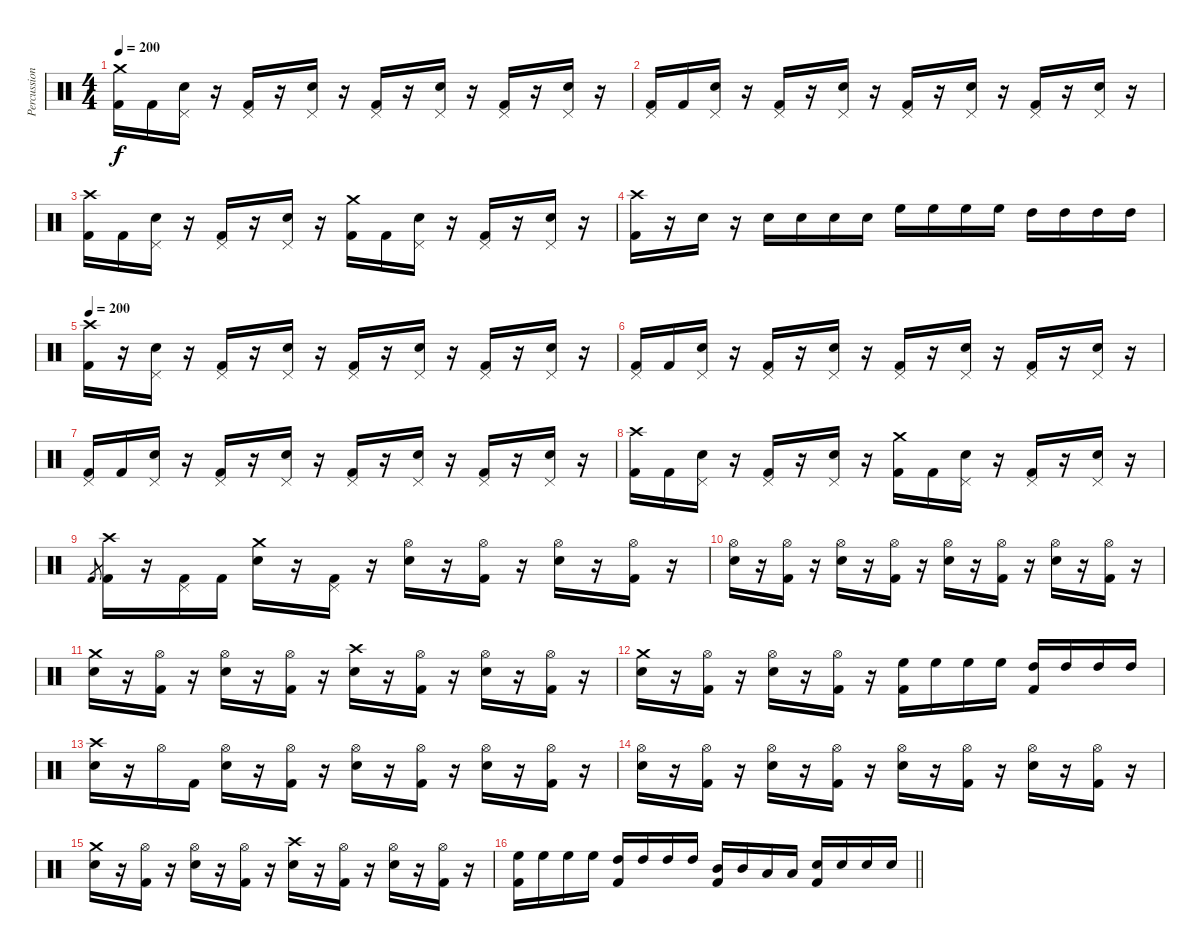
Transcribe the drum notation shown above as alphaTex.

\track ("Percussion" "Percussion") {instrument percussion}
\staff {score}
\articulation defaults
\ts (4 4)
\tempo 200
\clef neutral
\ks c
("Crash medium (hit)" "Kick (hit) 2").16{dy f} "Kick (hit) 2".16 ("Pedal Hi-Hat (hit)" "Snare (hit) 2").16 r.16 ("Pedal Hi-Hat (hit)" "Kick (hit) 2").16 r.16 ("Pedal Hi-Hat (hit)" "Snare (hit) 2").16 r.16 ("Pedal Hi-Hat (hit)" "Kick (hit) 2").16 r.16 ("Pedal Hi-Hat (hit)" "Snare (hit) 2").16 r.16 ("Pedal Hi-Hat (hit)" "Kick (hit) 2").16 r.16 ("Pedal Hi-Hat (hit)" "Snare (hit) 2").16 r.16 |
("Pedal Hi-Hat (hit)" "Kick (hit) 2").16 "Kick (hit) 2".16 ("Pedal Hi-Hat (hit)" "Snare (hit) 2").16 r.16 ("Pedal Hi-Hat (hit)" "Kick (hit) 2").16 r.16 ("Pedal Hi-Hat (hit)" "Snare (hit) 2").16 r.16 ("Pedal Hi-Hat (hit)" "Kick (hit) 2").16 r.16 ("Pedal Hi-Hat (hit)" "Snare (hit) 2").16 r.16 ("Pedal Hi-Hat (hit)" "Kick (hit) 2").16 r.16 ("Pedal Hi-Hat (hit)" "Snare (hit) 2").16 r.16 |
("Crash high (hit)" "Kick (hit) 2").16 "Kick (hit) 2".16 ("Pedal Hi-Hat (hit)" "Snare (hit) 2").16 r.16 ("Pedal Hi-Hat (hit)" "Kick (hit) 2").16 r.16 ("Pedal Hi-Hat (hit)" "Snare (hit) 2").16 r.16 ("Crash medium (hit)" "Kick (hit) 2").16 "Kick (hit) 2".16 ("Pedal Hi-Hat (hit)" "Snare (hit) 2").16 r.16 ("Pedal Hi-Hat (hit)" "Kick (hit) 2").16 r.16 ("Pedal Hi-Hat (hit)" "Snare (hit) 2").16 r.16 |
("Crash high (hit)" "Kick (hit) 2").16 r.16 "Snare (hit) 2".16 r.16 "Snare (hit) 2".16 "Snare (hit) 2".16 "Snare (hit) 2".16 "Snare (hit) 2".16 "High Floor Tom (hit)".16 "High Floor Tom (hit)".16 "High Floor Tom (hit)".16 "High Floor Tom (hit)".16 "High Tom (hit)".16 "High Tom (hit)".16 "High Tom (hit)".16 "High Tom (hit)".16 |
\tempo 200
("Crash high (hit)" "Kick (hit) 2").16 r.16 ("Pedal Hi-Hat (hit)" "Snare (hit) 2").16 r.16 ("Pedal Hi-Hat (hit)" "Kick (hit) 2").16 r.16 ("Pedal Hi-Hat (hit)" "Snare (hit) 2").16 r.16 ("Pedal Hi-Hat (hit)" "Kick (hit) 2").16 r.16 ("Pedal Hi-Hat (hit)" "Snare (hit) 2").16 r.16 ("Pedal Hi-Hat (hit)" "Kick (hit) 2").16 r.16 ("Pedal Hi-Hat (hit)" "Snare (hit) 2").16 r.16 |
("Pedal Hi-Hat (hit)" "Kick (hit) 2").16 "Kick (hit) 2".16 ("Pedal Hi-Hat (hit)" "Snare (hit) 2").16 r.16 ("Pedal Hi-Hat (hit)" "Kick (hit) 2").16 r.16 ("Pedal Hi-Hat (hit)" "Snare (hit) 2").16 r.16 ("Pedal Hi-Hat (hit)" "Kick (hit) 2").16 r.16 ("Pedal Hi-Hat (hit)" "Snare (hit) 2").16 r.16 ("Pedal Hi-Hat (hit)" "Kick (hit) 2").16 r.16 ("Pedal Hi-Hat (hit)" "Snare (hit) 2").16 r.16 |
("Pedal Hi-Hat (hit)" "Kick (hit) 2").16 "Kick (hit) 2".16 ("Pedal Hi-Hat (hit)" "Snare (hit) 2").16 r.16 ("Pedal Hi-Hat (hit)" "Kick (hit) 2").16 r.16 ("Pedal Hi-Hat (hit)" "Snare (hit) 2").16 r.16 ("Pedal Hi-Hat (hit)" "Kick (hit) 2").16 r.16 ("Pedal Hi-Hat (hit)" "Snare (hit) 2").16 r.16 ("Pedal Hi-Hat (hit)" "Kick (hit) 2").16 r.16 ("Pedal Hi-Hat (hit)" "Snare (hit) 2").16 r.16 |
("Crash high (hit)" "Kick (hit) 2").16 "Kick (hit) 2".16 ("Pedal Hi-Hat (hit)" "Snare (hit) 2").16 r.16 ("Pedal Hi-Hat (hit)" "Kick (hit) 2").16 r.16 ("Pedal Hi-Hat (hit)" "Snare (hit) 2").16 r.16 ("Crash medium (hit)" "Kick (hit) 2").16 "Kick (hit) 2".16 ("Pedal Hi-Hat (hit)" "Snare (hit) 2").16 r.16 ("Pedal Hi-Hat (hit)" "Kick (hit) 2").16 r.16 ("Pedal Hi-Hat (hit)" "Snare (hit) 2").16 r.16 |
"Kick (hit) 2".8{gr} ("Crash high (hit)" "Kick (hit) 2").16 r.16 ("Pedal Hi-Hat (hit)" "Kick (hit) 2").16 "Kick (hit) 2".16 ("Crash medium (hit)" "Snare (hit) 2").16 r.16 ("Pedal Hi-Hat (hit)" "Kick (hit) 2").16 r.16 ("Hi-Hat (open)" "Snare (hit) 2").16 r.16 ("Hi-Hat (open)" "Kick (hit) 2").16 r.16 ("Hi-Hat (open)" "Snare (hit) 2").16 r.16 ("Hi-Hat (open)" "Kick (hit) 2").16 r.16 |
("Hi-Hat (open)" "Snare (hit) 2").16 r.16 ("Hi-Hat (open)" "Kick (hit) 2").16 r.16 ("Hi-Hat (open)" "Snare (hit) 2").16 r.16 ("Hi-Hat (open)" "Kick (hit) 2").16 r.16 ("Hi-Hat (open)" "Snare (hit) 2").16 r.16 ("Hi-Hat (open)" "Kick (hit) 2").16 r.16 ("Hi-Hat (open)" "Snare (hit) 2").16 r.16 ("Hi-Hat (open)" "Kick (hit) 2").16 r.16 |
("Crash medium (hit)" "Snare (hit) 2").16 r.16 ("Hi-Hat (open)" "Kick (hit) 2").16 r.16 ("Hi-Hat (open)" "Snare (hit) 2").16 r.16 ("Hi-Hat (open)" "Kick (hit) 2").16 r.16 ("Crash high (hit)" "Snare (hit) 2").16 r.16 ("Hi-Hat (open)" "Kick (hit) 2").16 r.16 ("Hi-Hat (open)" "Snare (hit) 2").16 r.16 ("Hi-Hat (open)" "Kick (hit) 2").16 r.16 |
("Crash medium (hit)" "Snare (hit) 2").16 r.16 ("Hi-Hat (open)" "Kick (hit) 2").16 r.16 ("Hi-Hat (open)" "Snare (hit) 2").16 r.16 ("Hi-Hat (open)" "Kick (hit) 2").16 r.16 ("High Floor Tom (hit)" "Kick (hit) 2").16 "High Floor Tom (hit)".16 "High Floor Tom (hit)".16 "High Floor Tom (hit)".16 ("High Tom (hit)" "Kick (hit) 2").16 "High Tom (hit)".16 "High Tom (hit)".16 "High Tom (hit)".16 |
("Crash high (hit)" "Snare (hit) 2").16 r.16 "Hi-Hat (open)".16 "Kick (hit) 2".16 ("Hi-Hat (open)" "Snare (hit) 2").16 r.16 ("Hi-Hat (open)" "Kick (hit) 2").16 r.16 ("Hi-Hat (open)" "Snare (hit) 2").16 r.16 ("Hi-Hat (open)" "Kick (hit) 2").16 r.16 ("Hi-Hat (open)" "Snare (hit) 2").16 r.16 ("Hi-Hat (open)" "Kick (hit) 2").16 r.16 |
("Hi-Hat (open)" "Snare (hit) 2").16 r.16 ("Hi-Hat (open)" "Kick (hit) 2").16 r.16 ("Hi-Hat (open)" "Snare (hit) 2").16 r.16 ("Hi-Hat (open)" "Kick (hit) 2").16 r.16 ("Hi-Hat (open)" "Snare (hit) 2").16 r.16 ("Hi-Hat (open)" "Kick (hit) 2").16 r.16 ("Hi-Hat (open)" "Snare (hit) 2").16 r.16 ("Hi-Hat (open)" "Kick (hit) 2").16 r.16 |
("Crash medium (hit)" "Snare (hit) 2").16 r.16 ("Hi-Hat (open)" "Kick (hit) 2").16 r.16 ("Hi-Hat (open)" "Snare (hit) 2").16 r.16 ("Hi-Hat (open)" "Kick (hit) 2").16 r.16 ("Crash high (hit)" "Snare (hit) 2").16 r.16 ("Hi-Hat (open)" "Kick (hit) 2").16 r.16 ("Hi-Hat (open)" "Snare (hit) 2").16 r.16 ("Hi-Hat (open)" "Kick (hit) 2").16 r.16 |
\barLineRight lightlight
("High Floor Tom (hit)" "Kick (hit) 2").16 "High Floor Tom (hit)".16 "High Floor Tom (hit)".16 "High Floor Tom (hit)".16 ("High Tom (hit)" "Kick (hit) 2").16 "High Tom (hit)".16 "High Tom (hit)".16 "High Tom (hit)".16 ("Mid Tom (hit)" "Kick (hit) 2").16 "Mid Tom (hit)".16 "Low Tom (hit)".16 "Low Tom (hit)".16 ("Snare (hit) 2" "Kick (hit) 2").16 "Snare (hit) 2".16 "Snare (hit) 2".16 "Snare (hit) 2".16
